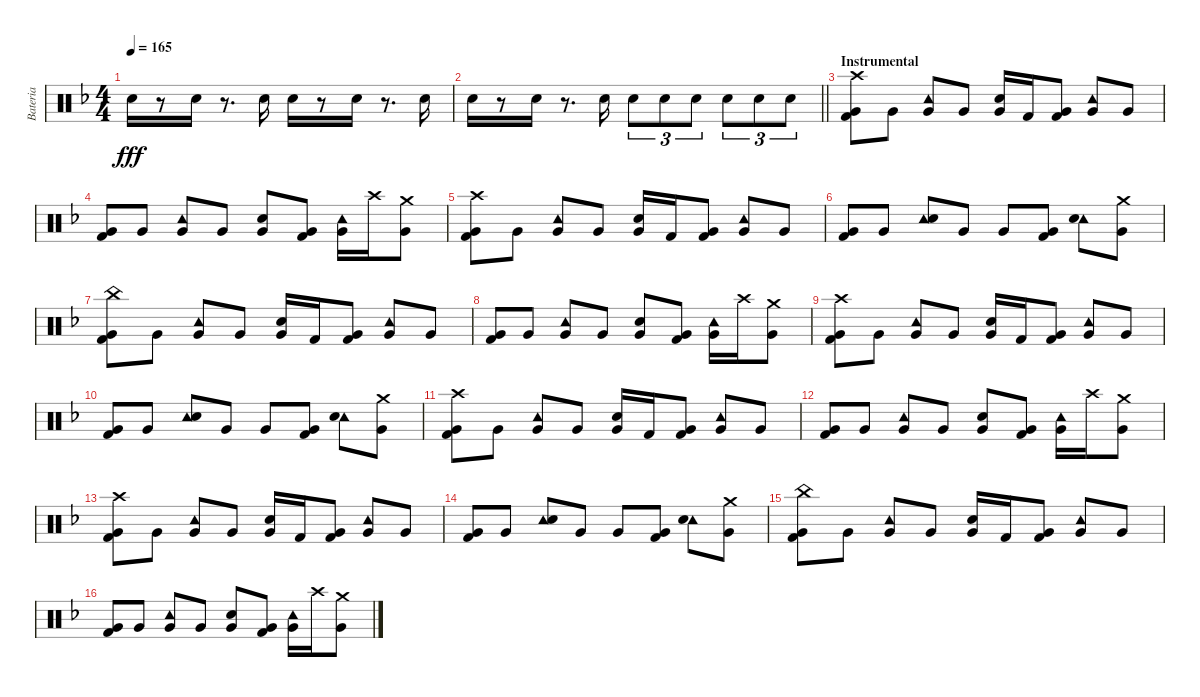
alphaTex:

\track ("Bateria" "Bateria") {instrument percussion}
\staff {score}
\articulation defaults
\ts (4 4)
\tempo 165
\clef neutral
\ks f "Snare (hit) 2".16{dy fff}
r.8 "Snare (hit) 2".16 r.8{d} "Snare (hit) 2".16 "Snare (hit) 2".16 r.8 "Snare (hit) 2".16 r.8{d} "Snare (hit) 2".16 |
\barLineRight lightlight "Snare (hit) 2".16
r.8 "Snare (hit) 2".16 r.8{d} "Snare (hit) 2".16 "Snare (hit) 2".8{tu (3 2)} "Snare (hit) 2".8{tu (3 2)} "Snare (hit) 2".8{tu (3 2)} "Snare (hit) 2".8{tu (3 2)} "Snare (hit) 2".8{tu (3 2)} "Snare (hit) 2".8{tu (3 2)} |
\section ("" "Instrumental")
("Crash high (hit)" "Very Low Tom (hit)" "Kick (hit) 2").8 "Very Low Tom (hit)".8 ("Tambourine (hit)" "Very Low Tom (hit)").8 "Very Low Tom (hit)".8 ("Snare (hit) 2" "Very Low Tom (hit)").16 "Kick (hit) 2".16 ("Very Low Tom (hit)" "Kick (hit) 2").8 ("Tambourine (hit)" "Very Low Tom (hit)").8 "Very Low Tom (hit)".8 |
("Very Low Tom (hit)" "Kick (hit) 2").8 "Very Low Tom (hit)".8 ("Tambourine (hit)" "Very Low Tom (hit)").8 "Very Low Tom (hit)".8 ("Snare (hit) 2" "Very Low Tom (hit)").8 ("Very Low Tom (hit)" "Kick (hit) 2").8 ("Tambourine (hit)" "Very Low Tom (hit)").16 "Crash high (hit)".16 ("Crash medium (hit)" "Very Low Tom (hit)").8 |
("Crash high (hit)" "Very Low Tom (hit)" "Kick (hit) 2").8 "Very Low Tom (hit)".8 ("Tambourine (hit)" "Very Low Tom (hit)").8 "Very Low Tom (hit)".8 ("Snare (hit) 2" "Very Low Tom (hit)").16 "Kick (hit) 2".16 ("Very Low Tom (hit)" "Kick (hit) 2").8 ("Tambourine (hit)" "Very Low Tom (hit)").8 "Very Low Tom (hit)".8 |
("Very Low Tom (hit)" "Kick (hit) 2").8 "Very Low Tom (hit)".8 ("Tambourine (hit)" "Snare (hit) 2").8 "Very Low Tom (hit)".8 "Very Low Tom (hit)".8 ("Very Low Tom (hit)" "Kick (hit) 2").8 ("Tambourine (hit)" "Snare (hit) 2").8 ("Crash medium (hit)" "Very Low Tom (hit)").8 |
("China (hit)" "Very Low Tom (hit)" "Kick (hit) 2").8 "Very Low Tom (hit)".8 ("Tambourine (hit)" "Very Low Tom (hit)").8 "Very Low Tom (hit)".8 ("Snare (hit) 2" "Very Low Tom (hit)").16 "Kick (hit) 2".16 ("Very Low Tom (hit)" "Kick (hit) 2").8 ("Tambourine (hit)" "Very Low Tom (hit)").8 "Very Low Tom (hit)".8 |
("Very Low Tom (hit)" "Kick (hit) 2").8 "Very Low Tom (hit)".8 ("Tambourine (hit)" "Very Low Tom (hit)").8 "Very Low Tom (hit)".8 ("Snare (hit) 2" "Very Low Tom (hit)").8 ("Very Low Tom (hit)" "Kick (hit) 2").8 ("Tambourine (hit)" "Very Low Tom (hit)").16 "Crash high (hit)".16 ("Crash medium (hit)" "Very Low Tom (hit)").8 |
("Crash high (hit)" "Very Low Tom (hit)" "Kick (hit) 2").8 "Very Low Tom (hit)".8 ("Tambourine (hit)" "Very Low Tom (hit)").8 "Very Low Tom (hit)".8 ("Snare (hit) 2" "Very Low Tom (hit)").16 "Kick (hit) 2".16 ("Very Low Tom (hit)" "Kick (hit) 2").8 ("Tambourine (hit)" "Very Low Tom (hit)").8 "Very Low Tom (hit)".8 |
("Very Low Tom (hit)" "Kick (hit) 2").8 "Very Low Tom (hit)".8 ("Tambourine (hit)" "Snare (hit) 2").8 "Very Low Tom (hit)".8 "Very Low Tom (hit)".8 ("Very Low Tom (hit)" "Kick (hit) 2").8 ("Tambourine (hit)" "Snare (hit) 2").8 ("Crash medium (hit)" "Very Low Tom (hit)").8 |
("Crash high (hit)" "Very Low Tom (hit)" "Kick (hit) 2").8 "Very Low Tom (hit)".8 ("Tambourine (hit)" "Very Low Tom (hit)").8 "Very Low Tom (hit)".8 ("Snare (hit) 2" "Very Low Tom (hit)").16 "Kick (hit) 2".16 ("Very Low Tom (hit)" "Kick (hit) 2").8 ("Tambourine (hit)" "Very Low Tom (hit)").8 "Very Low Tom (hit)".8 |
("Very Low Tom (hit)" "Kick (hit) 2").8 "Very Low Tom (hit)".8 ("Tambourine (hit)" "Very Low Tom (hit)").8 "Very Low Tom (hit)".8 ("Snare (hit) 2" "Very Low Tom (hit)").8 ("Very Low Tom (hit)" "Kick (hit) 2").8 ("Tambourine (hit)" "Very Low Tom (hit)").16 "Crash high (hit)".16 ("Crash medium (hit)" "Very Low Tom (hit)").8 |
("Crash high (hit)" "Very Low Tom (hit)" "Kick (hit) 2").8 "Very Low Tom (hit)".8 ("Tambourine (hit)" "Very Low Tom (hit)").8 "Very Low Tom (hit)".8 ("Snare (hit) 2" "Very Low Tom (hit)").16 "Kick (hit) 2".16 ("Very Low Tom (hit)" "Kick (hit) 2").8 ("Tambourine (hit)" "Very Low Tom (hit)").8 "Very Low Tom (hit)".8 |
("Very Low Tom (hit)" "Kick (hit) 2").8 "Very Low Tom (hit)".8 ("Tambourine (hit)" "Snare (hit) 2").8 "Very Low Tom (hit)".8 "Very Low Tom (hit)".8 ("Very Low Tom (hit)" "Kick (hit) 2").8 ("Tambourine (hit)" "Snare (hit) 2").8 ("Crash medium (hit)" "Very Low Tom (hit)").8 |
("China (hit)" "Very Low Tom (hit)" "Kick (hit) 2").8 "Very Low Tom (hit)".8 ("Tambourine (hit)" "Very Low Tom (hit)").8 "Very Low Tom (hit)".8 ("Snare (hit) 2" "Very Low Tom (hit)").16 "Kick (hit) 2".16 ("Very Low Tom (hit)" "Kick (hit) 2").8 ("Tambourine (hit)" "Very Low Tom (hit)").8 "Very Low Tom (hit)".8 |
("Very Low Tom (hit)" "Kick (hit) 2").8 "Very Low Tom (hit)".8 ("Tambourine (hit)" "Very Low Tom (hit)").8 "Very Low Tom (hit)".8 ("Snare (hit) 2" "Very Low Tom (hit)").8 ("Very Low Tom (hit)" "Kick (hit) 2").8 ("Tambourine (hit)" "Very Low Tom (hit)").16 "Crash high (hit)".16 ("Crash medium (hit)" "Very Low Tom (hit)").8
